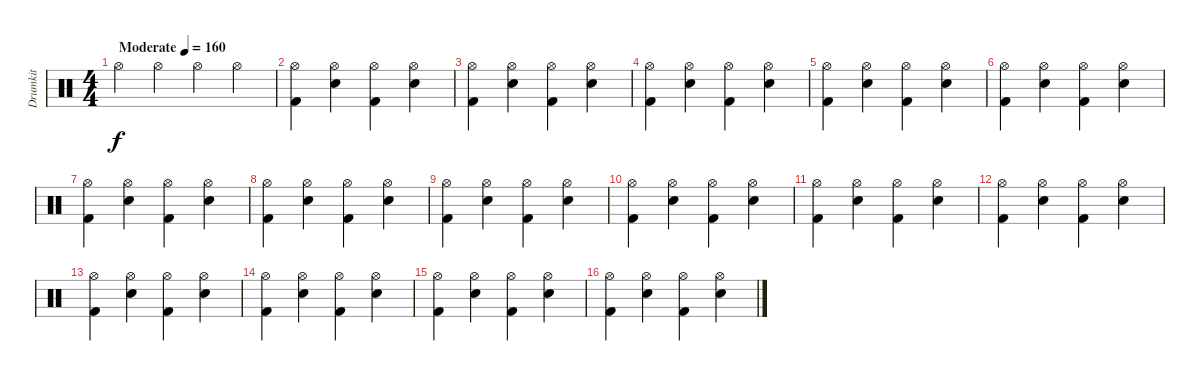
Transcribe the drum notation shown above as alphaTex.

\track ("Drumkit" "Drumkit") {instrument percussion}
\staff {score}
\articulation defaults
\ts (4 4)
\tempo (160 "Moderate")
\clef neutral
\ks c "Hi-Hat (open)".4{dy f} "Hi-Hat (open)".4 "Hi-Hat (open)".4 "Hi-Hat (open)".4
|
("Hi-Hat (open)" "Kick (hit) 2").4 ("Hi-Hat (open)" "Electric Snare (hit)").4 ("Hi-Hat (open)" "Kick (hit) 2").4 ("Hi-Hat (open)" "Electric Snare (hit)").4 |
("Hi-Hat (open)" "Kick (hit) 2").4 ("Hi-Hat (open)" "Electric Snare (hit)").4 ("Hi-Hat (open)" "Kick (hit) 2").4 ("Hi-Hat (open)" "Electric Snare (hit)").4 |
("Hi-Hat (open)" "Kick (hit) 2").4 ("Hi-Hat (open)" "Electric Snare (hit)").4 ("Hi-Hat (open)" "Kick (hit) 2").4 ("Hi-Hat (open)" "Electric Snare (hit)").4 |
("Hi-Hat (open)" "Kick (hit) 2").4 ("Hi-Hat (open)" "Electric Snare (hit)").4 ("Hi-Hat (open)" "Kick (hit) 2").4 ("Hi-Hat (open)" "Electric Snare (hit)").4 |
("Hi-Hat (open)" "Kick (hit) 2").4 ("Hi-Hat (open)" "Electric Snare (hit)").4 ("Hi-Hat (open)" "Kick (hit) 2").4 ("Hi-Hat (open)" "Electric Snare (hit)").4 |
("Hi-Hat (open)" "Kick (hit) 2").4 ("Hi-Hat (open)" "Electric Snare (hit)").4 ("Hi-Hat (open)" "Kick (hit) 2").4 ("Hi-Hat (open)" "Electric Snare (hit)").4 |
("Hi-Hat (open)" "Kick (hit) 2").4 ("Hi-Hat (open)" "Electric Snare (hit)").4 ("Hi-Hat (open)" "Kick (hit) 2").4 ("Hi-Hat (open)" "Electric Snare (hit)").4 |
("Hi-Hat (open)" "Kick (hit) 2").4 ("Hi-Hat (open)" "Electric Snare (hit)").4 ("Hi-Hat (open)" "Kick (hit) 2").4 ("Hi-Hat (open)" "Electric Snare (hit)").4 |
("Hi-Hat (open)" "Kick (hit) 2").4 ("Hi-Hat (open)" "Electric Snare (hit)").4 ("Hi-Hat (open)" "Kick (hit) 2").4 ("Hi-Hat (open)" "Electric Snare (hit)").4 |
("Hi-Hat (open)" "Kick (hit) 2").4 ("Hi-Hat (open)" "Electric Snare (hit)").4 ("Hi-Hat (open)" "Kick (hit) 2").4 ("Hi-Hat (open)" "Electric Snare (hit)").4 |
("Hi-Hat (open)" "Kick (hit) 2").4 ("Hi-Hat (open)" "Electric Snare (hit)").4 ("Hi-Hat (open)" "Kick (hit) 2").4 ("Hi-Hat (open)" "Electric Snare (hit)").4 |
("Hi-Hat (open)" "Kick (hit) 2").4 ("Hi-Hat (open)" "Electric Snare (hit)").4 ("Hi-Hat (open)" "Kick (hit) 2").4 ("Hi-Hat (open)" "Electric Snare (hit)").4 |
("Hi-Hat (open)" "Kick (hit) 2").4 ("Hi-Hat (open)" "Electric Snare (hit)").4 ("Hi-Hat (open)" "Kick (hit) 2").4 ("Hi-Hat (open)" "Electric Snare (hit)").4 |
("Hi-Hat (open)" "Kick (hit) 2").4 ("Hi-Hat (open)" "Electric Snare (hit)").4 ("Hi-Hat (open)" "Kick (hit) 2").4 ("Hi-Hat (open)" "Electric Snare (hit)").4 |
("Hi-Hat (open)" "Kick (hit) 2").4 ("Hi-Hat (open)" "Electric Snare (hit)").4 ("Hi-Hat (open)" "Kick (hit) 2").4 ("Hi-Hat (open)" "Electric Snare (hit)").4
